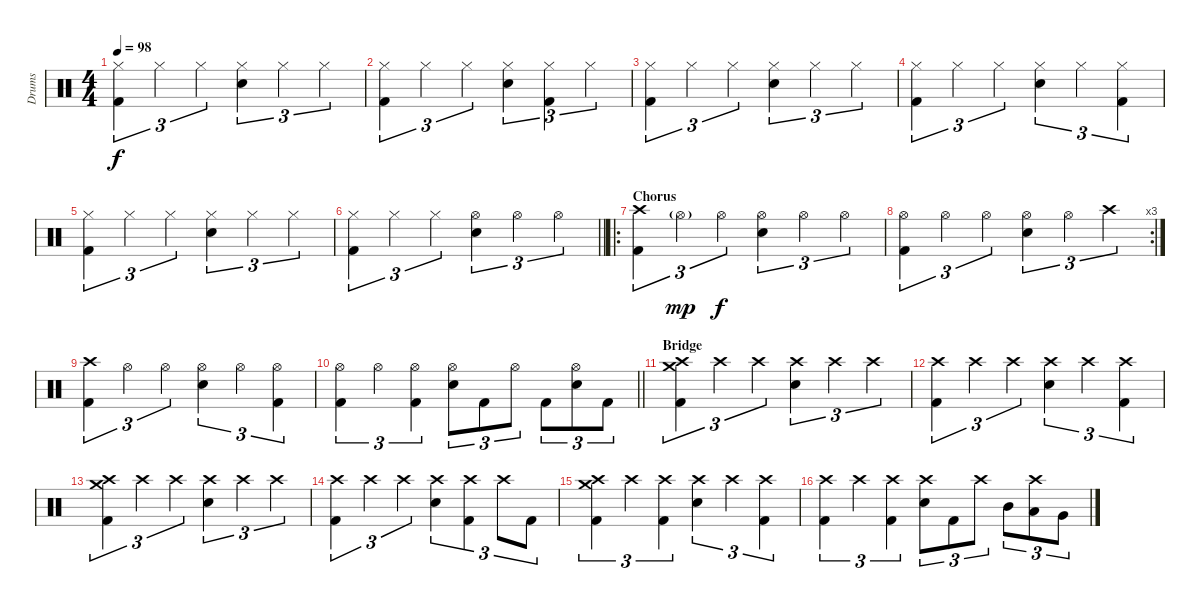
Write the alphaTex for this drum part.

\track ("Drums" "Drums") {instrument percussion}
\staff {score}
\articulation defaults
\ts (4 4)
\tempo 98
\clef neutral
\ks c
("Hi-Hat (closed)" "Kick (hit) 2").4{tu (3 2) dy f} "Hi-Hat (closed)".4{tu (3 2)} "Hi-Hat (closed)".4{tu (3 2)} ("Hi-Hat (closed)" "Electric Snare (hit)").4{tu (3 2)} "Hi-Hat (closed)".4{tu (3 2)} "Hi-Hat (closed)".4{tu (3 2)} |
("Hi-Hat (closed)" "Kick (hit) 2").4{tu (3 2)} "Hi-Hat (closed)".4{tu (3 2)} "Hi-Hat (closed)".4{tu (3 2)} ("Hi-Hat (closed)" "Electric Snare (hit)").4{tu (3 2)} ("Hi-Hat (closed)" "Kick (hit) 2").4{tu (3 2)} "Hi-Hat (closed)".4{tu (3 2)} |
("Hi-Hat (closed)" "Kick (hit) 2").4{tu (3 2)} "Hi-Hat (closed)".4{tu (3 2)} "Hi-Hat (closed)".4{tu (3 2)} ("Hi-Hat (closed)" "Electric Snare (hit)").4{tu (3 2)} "Hi-Hat (closed)".4{tu (3 2)} "Hi-Hat (closed)".4{tu (3 2)} |
("Hi-Hat (closed)" "Kick (hit) 2").4{tu (3 2)} "Hi-Hat (closed)".4{tu (3 2)} "Hi-Hat (closed)".4{tu (3 2)} ("Hi-Hat (closed)" "Electric Snare (hit)").4{tu (3 2)} "Hi-Hat (closed)".4{tu (3 2)} ("Hi-Hat (closed)" "Kick (hit) 2").4{tu (3 2)} |
("Hi-Hat (closed)" "Kick (hit) 2").4{tu (3 2)} "Hi-Hat (closed)".4{tu (3 2)} "Hi-Hat (closed)".4{tu (3 2)} ("Hi-Hat (closed)" "Electric Snare (hit)").4{tu (3 2)} "Hi-Hat (closed)".4{tu (3 2)} "Hi-Hat (closed)".4{tu (3 2)} |
\barLineRight lightlight
("Hi-Hat (closed)" "Kick (hit) 2").4{tu (3 2)} "Hi-Hat (closed)".4{tu (3 2)} "Hi-Hat (closed)".4{tu (3 2)} ("Hi-Hat (open)" "Electric Snare (hit)").4{tu (3 2)} "Hi-Hat (open)".4{tu (3 2)} "Hi-Hat (open)".4{tu (3 2)} |
\ro
\section ("" "Chorus")
("Crash high (hit)" "Kick (hit) 2").4{tu (3 2)} "Hi-Hat (open)"{g}.4{tu (3 2) dy mp} "Hi-Hat (open)".4{tu (3 2) dy f} ("Hi-Hat (open)" "Electric Snare (hit)").4{tu (3 2)} "Hi-Hat (open)".4{tu (3 2)} "Hi-Hat (open)".4{tu (3 2)} |
\rc 3
("Hi-Hat (open)" "Kick (hit) 2").4{tu (3 2)} "Hi-Hat (open)".4{tu (3 2)} "Hi-Hat (open)".4{tu (3 2)} ("Hi-Hat (open)" "Electric Snare (hit)").4{tu (3 2)} "Hi-Hat (open)".4{tu (3 2)} "Crash high (hit)".4{tu (3 2)} |
("Crash high (hit)" "Kick (hit) 2").4{tu (3 2)} "Hi-Hat (open)".4{tu (3 2)} "Hi-Hat (open)".4{tu (3 2)} ("Hi-Hat (open)" "Electric Snare (hit)").4{tu (3 2)} "Hi-Hat (open)".4{tu (3 2)} ("Hi-Hat (open)" "Kick (hit) 2").4{tu (3 2)} |
\barLineRight lightlight
("Hi-Hat (open)" "Kick (hit) 2").4{tu (3 2)} "Hi-Hat (open)".4{tu (3 2)} ("Hi-Hat (open)" "Kick (hit) 2").4{tu (3 2)} ("Hi-Hat (open)" "Electric Snare (hit)").8{tu (3 2)} "Kick (hit) 2".8{tu (3 2)} "Hi-Hat (open)".8{tu (3 2)} "Kick (hit) 2".8{tu (3 2)} ("Hi-Hat (open)" "Electric Snare (hit)").8{tu (3 2)} "Kick (hit) 2".8{tu (3 2)} |
\section ("" "Bridge")
("Crash medium (hit)" "Crash high (hit)" "Kick (hit) 2").4{tu (3 2)} "Crash high (hit)".4{tu (3 2)} "Crash high (hit)".4{tu (3 2)} ("Crash high (hit)" "Electric Snare (hit)").4{tu (3 2)} "Crash high (hit)".4{tu (3 2)} "Crash high (hit)".4{tu (3 2)} |
("Crash high (hit)" "Kick (hit) 2").4{tu (3 2)} "Crash high (hit)".4{tu (3 2)} "Crash high (hit)".4{tu (3 2)} ("Crash high (hit)" "Electric Snare (hit)").4{tu (3 2)} "Crash high (hit)".4{tu (3 2)} ("Crash high (hit)" "Kick (hit) 2").4{tu (3 2)} |
("Crash medium (hit)" "Crash high (hit)" "Kick (hit) 2").4{tu (3 2)} "Crash high (hit)".4{tu (3 2)} "Crash high (hit)".4{tu (3 2)} ("Crash high (hit)" "Electric Snare (hit)").4{tu (3 2)} "Crash high (hit)".4{tu (3 2)} "Crash high (hit)".4{tu (3 2)} |
("Crash high (hit)" "Kick (hit) 2").4{tu (3 2)} "Crash high (hit)".4{tu (3 2)} "Crash high (hit)".4{tu (3 2)} ("Crash high (hit)" "Electric Snare (hit)").4{tu (3 2)} ("Crash high (hit)" "Kick (hit) 2").4{tu (3 2)} "Crash high (hit)".8{tu (3 2)} "Kick (hit) 2".8{tu (3 2)} |
("Crash medium (hit)" "Crash high (hit)" "Kick (hit) 2").4{tu (3 2)} "Crash high (hit)".4{tu (3 2)} ("Crash high (hit)" "Kick (hit) 2").4{tu (3 2)} ("Crash high (hit)" "Electric Snare (hit)").4{tu (3 2)} "Crash high (hit)".4{tu (3 2)} ("Crash high (hit)" "Kick (hit) 2").4{tu (3 2)} |
("Crash high (hit)" "Kick (hit) 2").4{tu (3 2)} "Crash high (hit)".4{tu (3 2)} ("Crash high (hit)" "Kick (hit) 2").4{tu (3 2)} ("Crash high (hit)" "Electric Snare (hit)").8{tu (3 2)} "Kick (hit) 2".8{tu (3 2)} "Crash high (hit)".8{tu (3 2)} "Mid Tom (hit)".8{tu (3 2)} ("Crash high (hit)" "Low Tom (hit)").8{tu (3 2)} "Very Low Tom (hit)".8{tu (3 2)}
